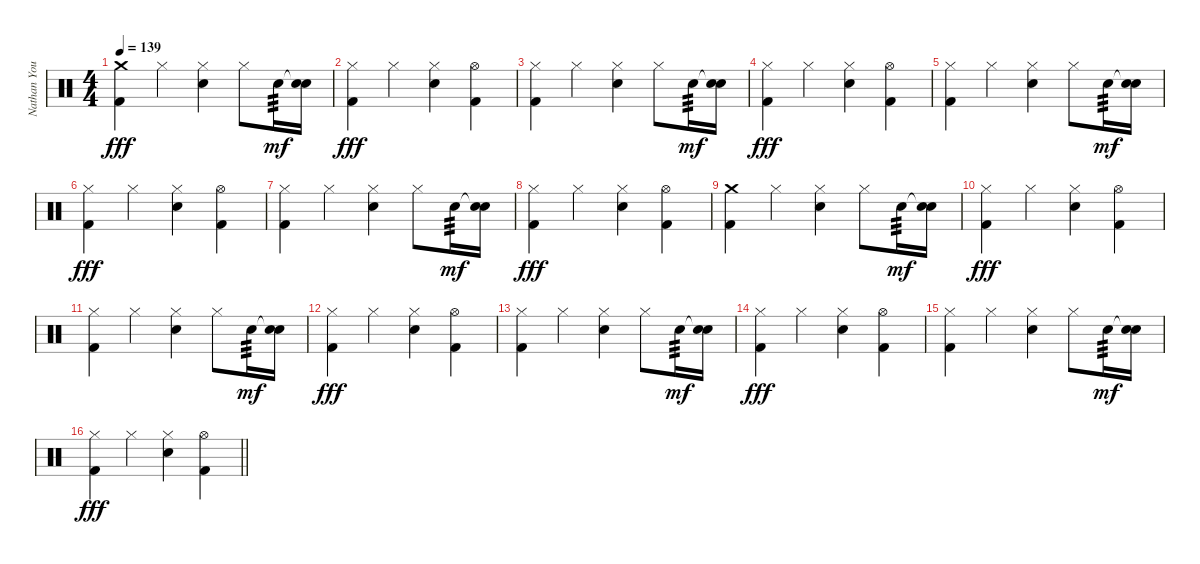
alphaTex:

\track ("Nathan Young" "Nathan You") {instrument percussion}
\staff {score}
\articulation defaults
\ts (4 4)
\tempo 139
\clef neutral
\ks c
("Crash medium (hit)" "Kick (hit) 2").4{dy fff} "Hi-Hat (closed)".4 ("Hi-Hat (closed)" "Electric Snare (hit)").4 "Hi-Hat (closed)".8 "Electric Snare (hit)".16{tp 3 dy mf} ("Snare (hit)"{t} "Electric Snare (hit)").16 |
("Hi-Hat (closed)" "Kick (hit) 2").4{dy fff} "Hi-Hat (closed)".4 ("Hi-Hat (closed)" "Electric Snare (hit)").4 ("Hi-Hat (open)" "Kick (hit) 2").4 |
("Hi-Hat (closed)" "Kick (hit) 2").4 "Hi-Hat (closed)".4 ("Hi-Hat (closed)" "Electric Snare (hit)").4 "Hi-Hat (closed)".8 "Electric Snare (hit)".16{tp 3 dy mf} ("Snare (hit)"{t} "Electric Snare (hit)").16 |
("Hi-Hat (closed)" "Kick (hit) 2").4{dy fff} "Hi-Hat (closed)".4 ("Hi-Hat (closed)" "Electric Snare (hit)").4 ("Hi-Hat (open)" "Kick (hit) 2").4 |
("Hi-Hat (closed)" "Kick (hit) 2").4 "Hi-Hat (closed)".4 ("Hi-Hat (closed)" "Electric Snare (hit)").4 "Hi-Hat (closed)".8 "Electric Snare (hit)".16{tp 3 dy mf} ("Snare (hit)"{t} "Electric Snare (hit)").16 |
("Hi-Hat (closed)" "Kick (hit) 2").4{dy fff} "Hi-Hat (closed)".4 ("Hi-Hat (closed)" "Electric Snare (hit)").4 ("Hi-Hat (open)" "Kick (hit) 2").4 |
("Hi-Hat (closed)" "Kick (hit) 2").4 "Hi-Hat (closed)".4 ("Hi-Hat (closed)" "Electric Snare (hit)").4 "Hi-Hat (closed)".8 "Electric Snare (hit)".16{tp 3 dy mf} ("Snare (hit)"{t} "Electric Snare (hit)").16 |
("Hi-Hat (closed)" "Kick (hit) 2").4{dy fff} "Hi-Hat (closed)".4 ("Hi-Hat (closed)" "Electric Snare (hit)").4 ("Hi-Hat (open)" "Kick (hit) 2").4 |
("Crash medium (hit)" "Kick (hit) 2").4 "Hi-Hat (closed)".4 ("Hi-Hat (closed)" "Electric Snare (hit)").4 "Hi-Hat (closed)".8 "Electric Snare (hit)".16{tp 3 dy mf} ("Snare (hit)"{t} "Electric Snare (hit)").16 |
("Hi-Hat (closed)" "Kick (hit) 2").4{dy fff} "Hi-Hat (closed)".4 ("Hi-Hat (closed)" "Electric Snare (hit)").4 ("Hi-Hat (open)" "Kick (hit) 2").4 |
("Hi-Hat (closed)" "Kick (hit) 2").4 "Hi-Hat (closed)".4 ("Hi-Hat (closed)" "Electric Snare (hit)").4 "Hi-Hat (closed)".8 "Electric Snare (hit)".16{tp 3 dy mf} ("Snare (hit)"{t} "Electric Snare (hit)").16 |
("Hi-Hat (closed)" "Kick (hit) 2").4{dy fff} "Hi-Hat (closed)".4 ("Hi-Hat (closed)" "Electric Snare (hit)").4 ("Hi-Hat (open)" "Kick (hit) 2").4 |
("Hi-Hat (closed)" "Kick (hit) 2").4 "Hi-Hat (closed)".4 ("Hi-Hat (closed)" "Electric Snare (hit)").4 "Hi-Hat (closed)".8 "Electric Snare (hit)".16{tp 3 dy mf} ("Snare (hit)"{t} "Electric Snare (hit)").16 |
("Hi-Hat (closed)" "Kick (hit) 2").4{dy fff} "Hi-Hat (closed)".4 ("Hi-Hat (closed)" "Electric Snare (hit)").4 ("Hi-Hat (open)" "Kick (hit) 2").4 |
("Hi-Hat (closed)" "Kick (hit) 2").4 "Hi-Hat (closed)".4 ("Hi-Hat (closed)" "Electric Snare (hit)").4 "Hi-Hat (closed)".8 "Electric Snare (hit)".16{tp 3 dy mf} ("Snare (hit)"{t} "Electric Snare (hit)").16 |
\barLineRight lightlight
("Hi-Hat (closed)" "Kick (hit) 2").4{dy fff} "Hi-Hat (closed)".4 ("Hi-Hat (closed)" "Electric Snare (hit)").4 ("Hi-Hat (open)" "Kick (hit) 2").4
